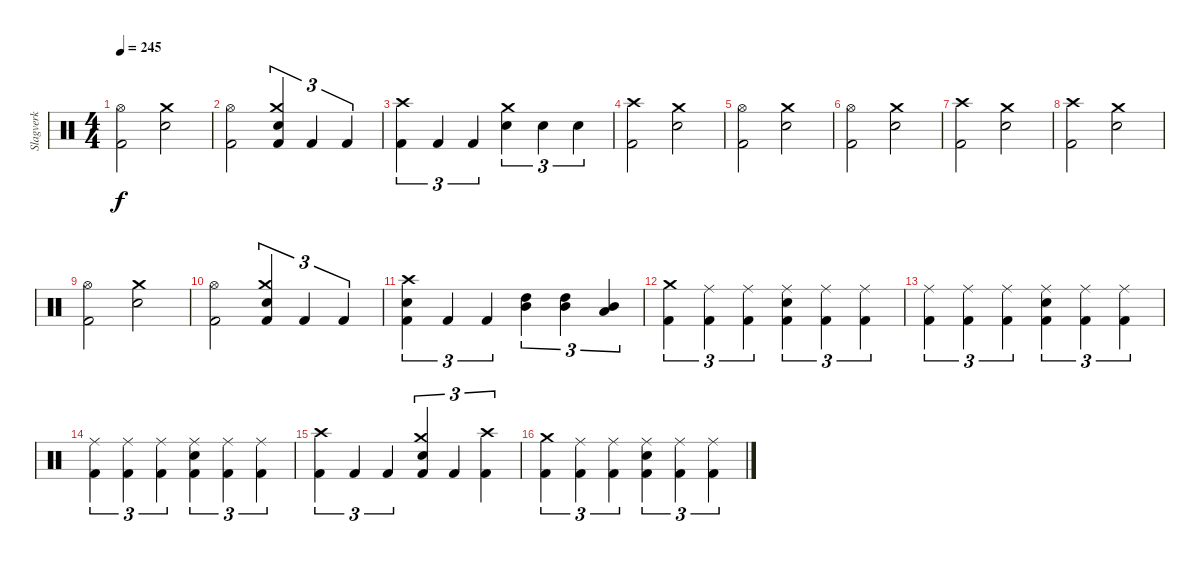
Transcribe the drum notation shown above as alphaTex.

\track ("Slagverk" "Slagverk") {instrument percussion}
\staff {score}
\articulation defaults
\ts (4 4)
\tempo 245
\clef neutral
\ks c
("Hi-Hat (open)" "Kick (hit) 2").2{dy f} ("Crash medium (hit)" "Snare (hit) 2").2 |
("Hi-Hat (open)" "Kick (hit) 2").2 ("Crash medium (hit)" "Snare (hit) 2" "Kick (hit) 2").4{tu (3 2)} "Kick (hit) 2".4{tu (3 2)} "Kick (hit) 2".4{tu (3 2)} |
("Crash high (hit)" "Kick (hit) 2").4{tu (3 2)} "Kick (hit) 2".4{tu (3 2)} "Kick (hit) 2".4{tu (3 2)} ("Crash medium (hit)" "Snare (hit) 2").4{tu (3 2)} "Snare (hit) 2".4{tu (3 2)} "Snare (hit) 2".4{tu (3 2)} |
("Crash high (hit)" "Kick (hit) 2").2 ("Crash medium (hit)" "Snare (hit) 2").2 |
("Hi-Hat (open)" "Kick (hit) 2").2 ("Crash medium (hit)" "Snare (hit) 2").2 |
("Hi-Hat (open)" "Kick (hit) 2").2 ("Crash medium (hit)" "Snare (hit) 2").2 |
("Crash high (hit)" "Kick (hit) 2").2 ("Crash medium (hit)" "Snare (hit) 2").2 |
("Crash high (hit)" "Kick (hit) 2").2 ("Crash medium (hit)" "Snare (hit) 2").2 |
("Hi-Hat (open)" "Kick (hit) 2").2 ("Crash medium (hit)" "Snare (hit) 2").2 |
("Hi-Hat (open)" "Kick (hit) 2").2 ("Crash medium (hit)" "Snare (hit) 2" "Kick (hit) 2").4{tu (3 2)} "Kick (hit) 2".4{tu (3 2)} "Kick (hit) 2".4{tu (3 2)} |
("Crash high (hit)" "Snare (hit) 2" "Kick (hit) 2").4{tu (3 2)} "Kick (hit) 2".4{tu (3 2)} "Kick (hit) 2".4{tu (3 2)} ("Mid Tom (hit)" "High Tom (hit)").4{tu (3 2)} ("Mid Tom (hit)" "High Tom (hit)").4{tu (3 2)} ("Mid Tom (hit)" "Low Tom (hit)").4{tu (3 2)} |
("Crash medium (hit)" "Kick (hit) 2").4{tu (3 2)} ("Ride (middle)" "Kick (hit) 2").4{tu (3 2)} ("Ride (middle)" "Kick (hit) 2").4{tu (3 2)} ("Ride (middle)" "Snare (hit) 2" "Kick (hit) 2").4{tu (3 2)} ("Ride (middle)" "Kick (hit) 2").4{tu (3 2)} ("Ride (middle)" "Kick (hit) 2").4{tu (3 2)} |
("Ride (middle)" "Kick (hit) 2").4{tu (3 2)} ("Ride (middle)" "Kick (hit) 2").4{tu (3 2)} ("Ride (middle)" "Kick (hit) 2").4{tu (3 2)} ("Ride (middle)" "Snare (hit) 2" "Kick (hit) 2").4{tu (3 2)} ("Ride (middle)" "Kick (hit) 2").4{tu (3 2)} ("Ride (middle)" "Kick (hit) 2").4{tu (3 2)} |
("Ride (middle)" "Kick (hit) 2").4{tu (3 2)} ("Ride (middle)" "Kick (hit) 2").4{tu (3 2)} ("Ride (middle)" "Kick (hit) 2").4{tu (3 2)} ("Ride (middle)" "Snare (hit) 2" "Kick (hit) 2").4{tu (3 2)} ("Ride (middle)" "Kick (hit) 2").4{tu (3 2)} ("Ride (middle)" "Kick (hit) 2").4{tu (3 2)} |
("Crash high (hit)" "Kick (hit) 2").4{tu (3 2)} "Kick (hit) 2".4{tu (3 2)} "Kick (hit) 2".4{tu (3 2)} ("Crash medium (hit)" "Snare (hit) 2" "Kick (hit) 2").4{tu (3 2)} "Kick (hit) 2".4{tu (3 2)} ("Crash high (hit)" "Kick (hit) 2").4{tu (3 2)} |
("Crash medium (hit)" "Kick (hit) 2").4{tu (3 2)} ("Ride (middle)" "Kick (hit) 2").4{tu (3 2)} ("Ride (middle)" "Kick (hit) 2").4{tu (3 2)} ("Ride (middle)" "Snare (hit) 2" "Kick (hit) 2").4{tu (3 2)} ("Ride (middle)" "Kick (hit) 2").4{tu (3 2)} ("Ride (middle)" "Kick (hit) 2").4{tu (3 2)}
